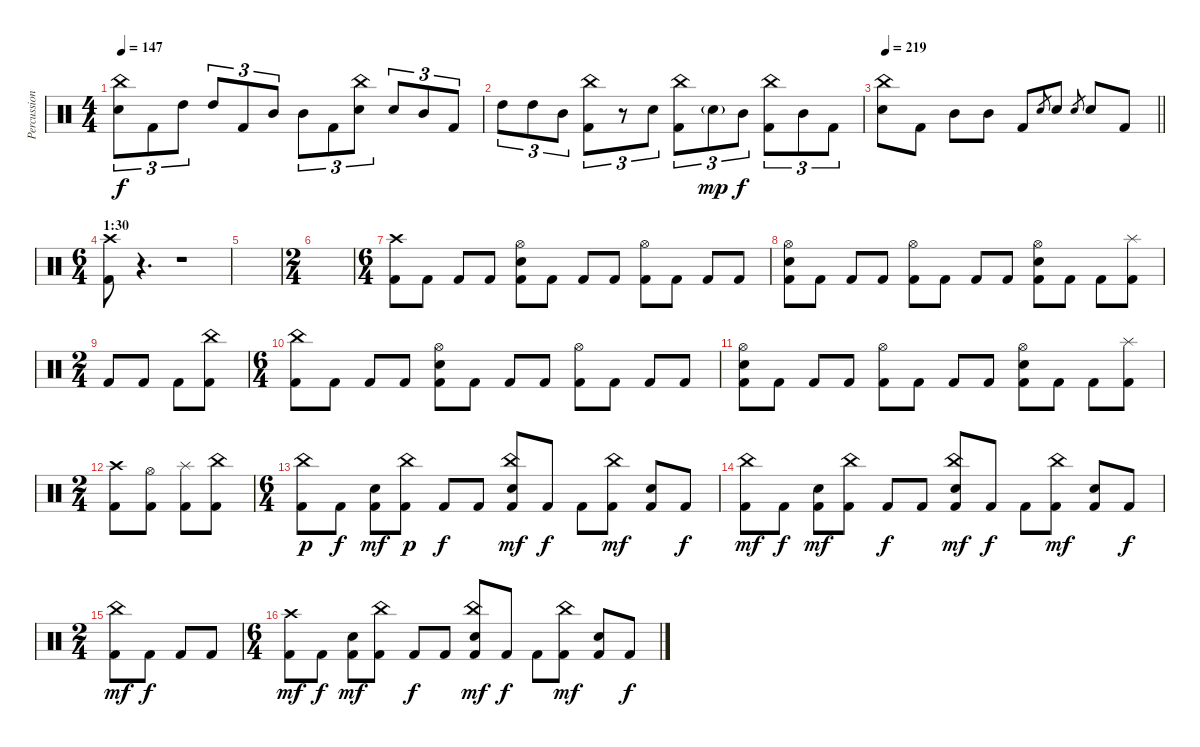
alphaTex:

\track ("Percussion" "Percussion") {instrument percussion}
\staff {score}
\articulation defaults
\ts (4 4)
\tempo 147
\clef neutral
\ks c
("Electric Snare (hit)" "China (hit)").8{tu (3 2) dy f} "Kick (hit) 2".8{tu (3 2)} "High Tom (hit)".8{tu (3 2)} "High Tom (hit)".8{tu (3 2)} "Kick (hit) 2".8{tu (3 2)} "Mid Tom (hit)".8{tu (3 2)} "Mid Tom (hit)".8{tu (3 2)} "Kick (hit) 2".8{tu (3 2)} ("Electric Snare (hit)" "China (hit)").8{tu (3 2)} "Electric Snare (hit)".8{tu (3 2)} "Mid Tom (hit)".8{tu (3 2)} "Kick (hit) 2".8{tu (3 2)} |
"High Tom (hit)".8{tu (3 2)} "High Tom (hit)".8{tu (3 2)} "Mid Tom (hit)".8{tu (3 2)} ("China (hit)" "Kick (hit) 2").8{tu (3 2)} r.8{tu (3 2)} "Electric Snare (hit)".8{tu (3 2)} ("China (hit)" "Kick (hit) 2").8{tu (3 2)} "Electric Snare (hit)"{g}.8{tu (3 2) dy mp} "Mid Tom (hit)".8{tu (3 2) dy f} ("China (hit)" "Kick (hit) 2").8{tu (3 2)} "Mid Tom (hit)".8{tu (3 2)} "Kick (hit) 2".8{tu (3 2)} |
\tempo 219
\barLineRight lightlight
("China (hit)" "Electric Snare (hit)").8 "Kick (hit) 2".8 "Mid Tom (hit)".8 "Mid Tom (hit)".8 "Kick (hit) 2".8 "Electric Snare (hit)".8{gr} "Electric Snare (hit)".8 "Electric Snare (hit)".8{gr} "Electric Snare (hit)".8 "Kick (hit) 2".8 |
\ts (6 4)
\section ("" "1:30 ")
("Crash high (hit)" "Kick (hit) 2").8 r.4{d volume 0} r.1 |
|
\ts (2 4)
|
\ts (6 4)
("Kick (hit) 2" "Crash high (hit)").8{volume 13} "Kick (hit) 2".8 "Kick (hit) 2".8 "Kick (hit) 2".8 ("Kick (hit) 2" "Hi-Hat (open)" "Electric Snare (hit)").8 "Kick (hit) 2".8 "Kick (hit) 2".8 "Kick (hit) 2".8 ("Kick (hit) 2" "Hi-Hat (open)").8 "Kick (hit) 2".8 "Kick (hit) 2".8 "Kick (hit) 2".8 |
("Kick (hit) 2" "Hi-Hat (open)" "Electric Snare (hit)").8 "Kick (hit) 2".8 "Kick (hit) 2".8 "Kick (hit) 2".8 ("Kick (hit) 2" "Hi-Hat (open)").8 "Kick (hit) 2".8 "Kick (hit) 2".8 "Kick (hit) 2".8 ("Kick (hit) 2" "Hi-Hat (open)" "Electric Snare (hit)").8 "Kick (hit) 2".8 "Kick (hit) 2".8 ("Kick (hit) 2" "Splash (hit)").8 |
\ts (2 4)
"Kick (hit) 2".8 "Kick (hit) 2".8 "Kick (hit) 2".8 ("Kick (hit) 2" "China (hit)").8 |
\ts (6 4)
("Kick (hit) 2" "China (hit)").8 "Kick (hit) 2".8 "Kick (hit) 2".8 "Kick (hit) 2".8 ("Kick (hit) 2" "Hi-Hat (open)" "Electric Snare (hit)").8 "Kick (hit) 2".8 "Kick (hit) 2".8 "Kick (hit) 2".8 ("Kick (hit) 2" "Hi-Hat (open)").8 "Kick (hit) 2".8 "Kick (hit) 2".8 "Kick (hit) 2".8 |
("Kick (hit) 2" "Hi-Hat (open)" "Electric Snare (hit)").8 "Kick (hit) 2".8 "Kick (hit) 2".8 "Kick (hit) 2".8 ("Kick (hit) 2" "Hi-Hat (open)").8 "Kick (hit) 2".8 "Kick (hit) 2".8 "Kick (hit) 2".8 ("Kick (hit) 2" "Hi-Hat (open)" "Electric Snare (hit)").8 "Kick (hit) 2".8 "Kick (hit) 2".8 ("Kick (hit) 2" "Splash (hit)").8 |
\ts (2 4)
("Kick (hit) 2" "Crash high (hit)").8 ("Kick (hit) 2" "Hi-Hat (open)").8 ("Kick (hit) 2" "Splash (hit)").8 ("Kick (hit) 2" "China (hit)").8 |
\ts (6 4)
("Kick (hit) 2" "China (hit)").8{dy p} "Kick (hit) 2".8{dy f} ("Kick (hit) 2" "Electric Snare (hit)").8{dy mf} ("Kick (hit) 2" "China (hit)").8{dy p} "Kick (hit) 2".8{dy f} "Kick (hit) 2".8 ("Kick (hit) 2" "China (hit)" "Electric Snare (hit)").8{dy mf} "Kick (hit) 2".8{dy f} "Kick (hit) 2".8 ("Kick (hit) 2" "China (hit)").8{dy mf} ("Kick (hit) 2" "Electric Snare (hit)").8 "Kick (hit) 2".8{dy f} |
("Kick (hit) 2" "China (hit)").8{dy mf} "Kick (hit) 2".8{dy f} ("Kick (hit) 2" "Electric Snare (hit)").8{dy mf} ("Kick (hit) 2" "China (hit)").8 "Kick (hit) 2".8{dy f} "Kick (hit) 2".8 ("Kick (hit) 2" "Electric Snare (hit)" "China (hit)").8{dy mf} "Kick (hit) 2".8{dy f} "Kick (hit) 2".8 ("Kick (hit) 2" "China (hit)").8{dy mf} ("Kick (hit) 2" "Electric Snare (hit)").8 "Kick (hit) 2".8{dy f} |
\ts (2 4)
("Kick (hit) 2" "China (hit)").8{dy mf} "Kick (hit) 2".8{dy f} "Kick (hit) 2".8 "Kick (hit) 2".8 |
\ts (6 4)
("Kick (hit) 2" "Crash high (hit)").8{dy mf} "Kick (hit) 2".8{dy f} ("Kick (hit) 2" "Electric Snare (hit)").8{dy mf} ("Kick (hit) 2" "China (hit)").8 "Kick (hit) 2".8{dy f} "Kick (hit) 2".8 ("Kick (hit) 2" "Electric Snare (hit)" "China (hit)").8{dy mf} "Kick (hit) 2".8{dy f} "Kick (hit) 2".8 ("Kick (hit) 2" "China (hit)").8{dy mf} ("Kick (hit) 2" "Electric Snare (hit)").8 "Kick (hit) 2".8{dy f}
